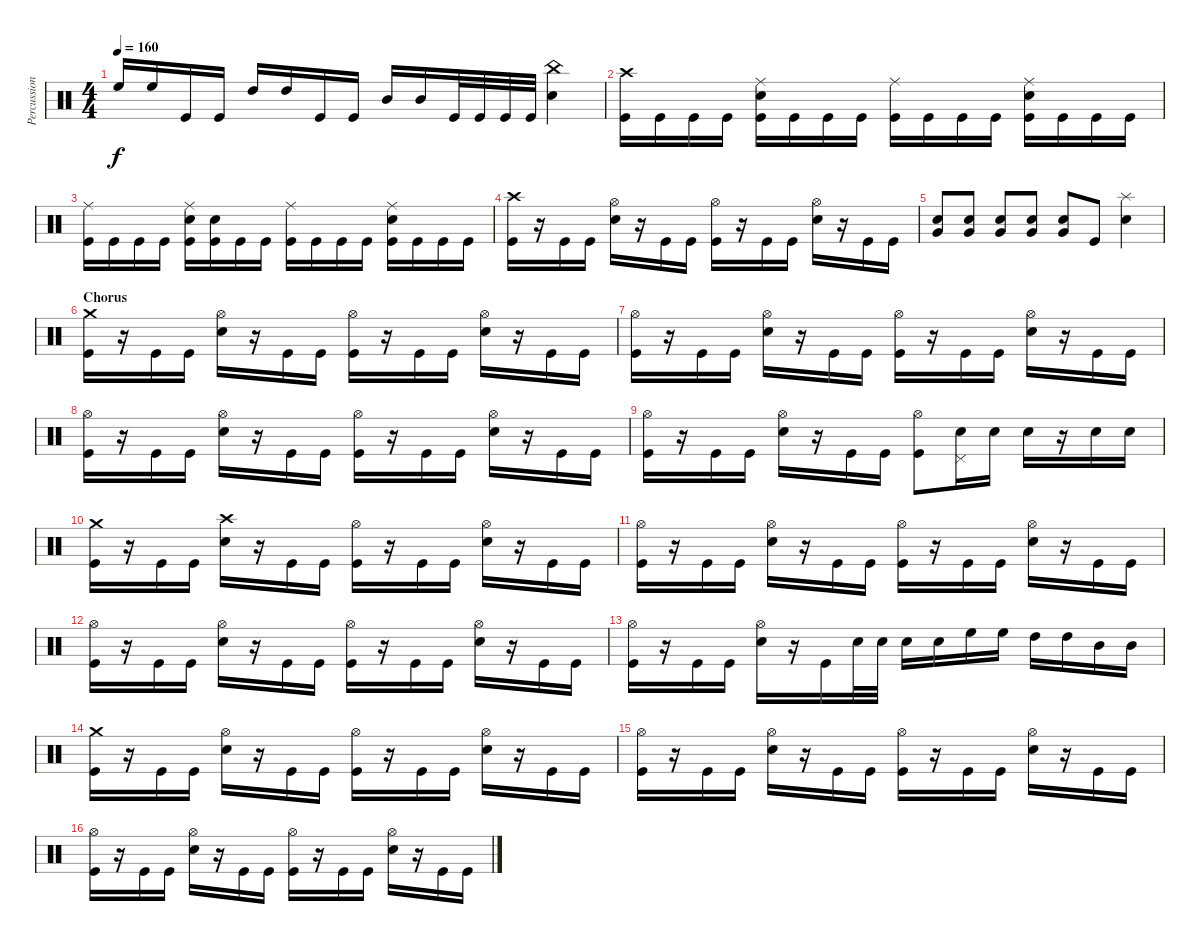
\track ("Percussion" "Percussion") {instrument percussion}
\staff {score}
\articulation defaults
\ts (4 4)
\tempo 160
\clef neutral
\ks c "High Floor Tom (hit)".16{dy f} "High Floor Tom (hit)".16 "Kick (hit)".16 "Kick (hit)".16 "High Tom (hit)".16 "High Tom (hit)".16 "Kick (hit)".16 "Kick (hit)".16 "Mid Tom (hit)".16 "Mid Tom (hit)".16 "Kick (hit)".32 "Kick (hit)".32 "Kick (hit)".32 "Kick (hit)".32
("China (hit)" "Electric Snare (hit)").4 |
("Crash high (hit)" "Kick (hit)").16 "Kick (hit)".16 "Kick (hit)".16 "Kick (hit)".16 ("Ride (middle)" "Electric Snare (hit)" "Kick (hit)").16 "Kick (hit)".16 "Kick (hit)".16 "Kick (hit)".16 ("Ride (middle)" "Kick (hit)").16 "Kick (hit)".16 "Kick (hit)".16 "Kick (hit)".16 ("Ride (middle)" "Electric Snare (hit)" "Kick (hit)").16 "Kick (hit)".16 "Kick (hit)".16 "Kick (hit)".16 |
("Ride (middle)" "Kick (hit)").16 "Kick (hit)".16 "Kick (hit)".16 "Kick (hit)".16 ("Ride (middle)" "Electric Snare (hit)" "Kick (hit)").16 ("Electric Snare (hit)" "Kick (hit)").16 "Kick (hit)".16 "Kick (hit)".16 ("Ride (middle)" "Kick (hit)").16 "Kick (hit)".16 "Kick (hit)".16 "Kick (hit)".16 ("Ride (middle)" "Electric Snare (hit)" "Kick (hit)").16 "Kick (hit)".16 "Kick (hit)".16 "Kick (hit)".16 |
("Crash high (hit)" "Kick (hit)").16 r.16 "Kick (hit)".16 "Kick (hit)".16 ("Hi-Hat (open)" "Electric Snare (hit)").16 r.16 "Kick (hit)".16 "Kick (hit)".16 ("Hi-Hat (open)" "Kick (hit)").16 r.16 "Kick (hit)".16 "Kick (hit)".16 ("Hi-Hat (open)" "Electric Snare (hit)").16 r.16 "Kick (hit)".16 "Kick (hit)".16 |
("Very Low Tom (hit)" "Electric Snare (hit)").8 ("Very Low Tom (hit)" "Electric Snare (hit)").8 ("Very Low Tom (hit)" "Electric Snare (hit)").8 ("Very Low Tom (hit)" "Electric Snare (hit)").8 ("Very Low Tom (hit)" "Electric Snare (hit)").8 "Kick (hit)".8 ("Splash (hit)" "Electric Snare (hit)").4 |
\section ("" "Chorus")
("Crash medium (hit)" "Kick (hit)").16 r.16 "Kick (hit)".16 "Kick (hit)".16 ("Hi-Hat (open)" "Electric Snare (hit)").16 r.16 "Kick (hit)".16 "Kick (hit)".16 ("Hi-Hat (open)" "Kick (hit)").16 r.16 "Kick (hit)".16 "Kick (hit)".16 ("Hi-Hat (open)" "Electric Snare (hit)").16 r.16 "Kick (hit)".16 "Kick (hit)".16 |
("Hi-Hat (open)" "Kick (hit)").16 r.16 "Kick (hit)".16 "Kick (hit)".16 ("Hi-Hat (open)" "Electric Snare (hit)").16 r.16 "Kick (hit)".16 "Kick (hit)".16 ("Hi-Hat (open)" "Kick (hit)").16 r.16 "Kick (hit)".16 "Kick (hit)".16 ("Hi-Hat (open)" "Electric Snare (hit)").16 r.16 "Kick (hit)".16 "Kick (hit)".16 |
("Hi-Hat (open)" "Kick (hit)").16 r.16 "Kick (hit)".16 "Kick (hit)".16 ("Hi-Hat (open)" "Electric Snare (hit)").16 r.16 "Kick (hit)".16 "Kick (hit)".16 ("Hi-Hat (open)" "Kick (hit)").16 r.16 "Kick (hit)".16 "Kick (hit)".16 ("Hi-Hat (open)" "Electric Snare (hit)").16 r.16 "Kick (hit)".16 "Kick (hit)".16 |
("Hi-Hat (open)" "Kick (hit)").16 r.16 "Kick (hit)".16 "Kick (hit)".16 ("Hi-Hat (open)" "Electric Snare (hit)").16 r.16 "Kick (hit)".16 "Kick (hit)".16 ("Hi-Hat (open)" "Kick (hit)").8 ("Pedal Hi-Hat (hit)" "Electric Snare (hit)").16 "Electric Snare (hit)".16 "Electric Snare (hit)".16 r.16 "Electric Snare (hit)".16 "Electric Snare (hit)".16 |
("Crash medium (hit)" "Kick (hit)").16 r.16 "Kick (hit)".16 "Kick (hit)".16 ("Crash high (hit)" "Electric Snare (hit)").16 r.16 "Kick (hit)".16 "Kick (hit)".16 ("Hi-Hat (open)" "Kick (hit)").16 r.16 "Kick (hit)".16 "Kick (hit)".16 ("Hi-Hat (open)" "Electric Snare (hit)").16 r.16 "Kick (hit)".16 "Kick (hit)".16 |
("Hi-Hat (open)" "Kick (hit)").16 r.16 "Kick (hit)".16 "Kick (hit)".16 ("Hi-Hat (open)" "Electric Snare (hit)").16 r.16 "Kick (hit)".16 "Kick (hit)".16 ("Hi-Hat (open)" "Kick (hit)").16 r.16 "Kick (hit)".16 "Kick (hit)".16 ("Hi-Hat (open)" "Electric Snare (hit)").16 r.16 "Kick (hit)".16 "Kick (hit)".16 |
("Hi-Hat (open)" "Kick (hit)").16 r.16 "Kick (hit)".16 "Kick (hit)".16 ("Hi-Hat (open)" "Electric Snare (hit)").16 r.16 "Kick (hit)".16 "Kick (hit)".16 ("Hi-Hat (open)" "Kick (hit)").16 r.16 "Kick (hit)".16 "Kick (hit)".16 ("Hi-Hat (open)" "Electric Snare (hit)").16 r.16 "Kick (hit)".16 "Kick (hit)".16 |
("Hi-Hat (open)" "Kick (hit)").16 r.16 "Kick (hit)".16 "Kick (hit)".16 ("Hi-Hat (open)" "Electric Snare (hit)").16 r.16 "Kick (hit)".16 "Electric Snare (hit)".32 "Electric Snare (hit)".32 "Electric Snare (hit)".16 "Electric Snare (hit)".16 "High Floor Tom (hit)".16 "High Floor Tom (hit)".16 "High Tom (hit)".16 "High Tom (hit)".16 "Mid Tom (hit)".16 "Mid Tom (hit)".16 |
("Crash medium (hit)" "Kick (hit)").16 r.16 "Kick (hit)".16 "Kick (hit)".16 ("Hi-Hat (open)" "Electric Snare (hit)").16 r.16 "Kick (hit)".16 "Kick (hit)".16 ("Hi-Hat (open)" "Kick (hit)").16 r.16 "Kick (hit)".16 "Kick (hit)".16 ("Hi-Hat (open)" "Electric Snare (hit)").16 r.16 "Kick (hit)".16 "Kick (hit)".16 |
("Hi-Hat (open)" "Kick (hit)").16 r.16 "Kick (hit)".16 "Kick (hit)".16 ("Hi-Hat (open)" "Electric Snare (hit)").16 r.16 "Kick (hit)".16 "Kick (hit)".16 ("Hi-Hat (open)" "Kick (hit)").16 r.16 "Kick (hit)".16 "Kick (hit)".16 ("Hi-Hat (open)" "Electric Snare (hit)").16 r.16 "Kick (hit)".16 "Kick (hit)".16 |
("Hi-Hat (open)" "Kick (hit)").16 r.16 "Kick (hit)".16 "Kick (hit)".16 ("Hi-Hat (open)" "Electric Snare (hit)").16 r.16 "Kick (hit)".16 "Kick (hit)".16 ("Hi-Hat (open)" "Kick (hit)").16 r.16 "Kick (hit)".16 "Kick (hit)".16 ("Hi-Hat (open)" "Electric Snare (hit)").16 r.16 "Kick (hit)".16 "Kick (hit)".16
